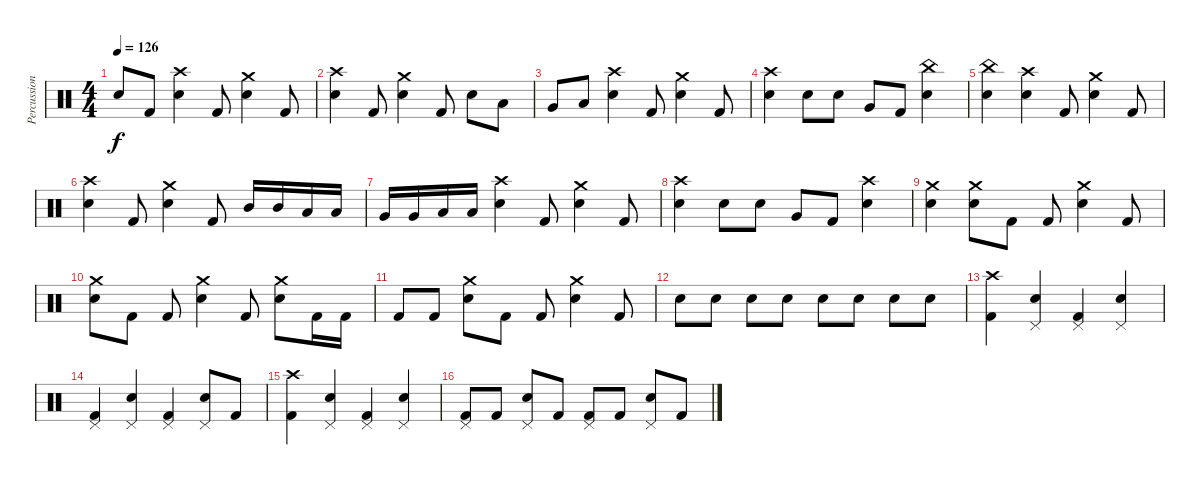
\track ("Percussion" "Percussion") {instrument percussion}
\staff {score}
\articulation defaults
\ts (4 4)
\tempo 126
\clef neutral
\ks c "Snare (hit) 2".8{dy f} "Kick (hit) 2".8
("Crash high (hit)" "Snare (hit) 2").4 "Kick (hit) 2".8 ("Crash medium (hit)" "Snare (hit) 2").4 "Kick (hit) 2".8 |
("Crash high (hit)" "Snare (hit) 2").4 "Kick (hit) 2".8 ("Crash medium (hit)" "Snare (hit) 2").4 "Kick (hit) 2".8 "Snare (hit) 2".8 "Low Tom (hit)".8 |
"Very Low Tom (hit)".8 "Low Floor Tom (hit)".8 ("Crash high (hit)" "Snare (hit) 2").4 "Kick (hit) 2".8 ("Crash medium (hit)" "Snare (hit) 2").4 "Kick (hit) 2".8 |
("Crash high (hit)" "Snare (hit) 2").4 "Snare (hit) 2".8 "Snare (hit) 2".8 "Very Low Tom (hit)".8 "Kick (hit) 2".8 ("China (hit)" "Snare (hit) 2").4 |
("China (hit)" "Snare (hit) 2").4 ("Crash high (hit)" "Snare (hit) 2").4 "Kick (hit) 2".8 ("Crash medium (hit)" "Snare (hit) 2").4 "Kick (hit) 2".8 |
("Crash high (hit)" "Snare (hit) 2").4 "Kick (hit) 2".8 ("Crash medium (hit)" "Snare (hit) 2").4 "Kick (hit) 2".8 "Mid Tom (hit)".16 "Mid Tom (hit)".16 "Low Tom (hit)".16 "Low Tom (hit)".16 |
"Very Low Tom (hit)".16 "Very Low Tom (hit)".16 "Low Floor Tom (hit)".16 "Low Floor Tom (hit)".16 ("Crash high (hit)" "Snare (hit) 2").4 "Kick (hit) 2".8 ("Crash medium (hit)" "Snare (hit) 2").4 "Kick (hit) 2".8 |
("Crash high (hit)" "Snare (hit) 2").4 "Snare (hit) 2".8 "Snare (hit) 2".8 "Very Low Tom (hit)".8 "Kick (hit) 2".8 ("Crash high (hit)" "Snare (hit) 2").4 |
("Crash medium (hit)" "Snare (hit) 2").4 ("Crash medium (hit)" "Snare (hit) 2").8 "Kick (hit) 2".8 "Kick (hit) 2".8 ("Crash medium (hit)" "Snare (hit) 2").4 "Kick (hit) 2".8 |
("Crash medium (hit)" "Snare (hit) 2").8 "Kick (hit) 2".8 "Kick (hit) 2".8 ("Crash medium (hit)" "Snare (hit) 2").4 "Kick (hit) 2".8 ("Crash medium (hit)" "Snare (hit) 2").8 "Kick (hit) 2".16 "Kick (hit) 2".16 |
"Kick (hit) 2".8 "Kick (hit) 2".8 ("Crash medium (hit)" "Snare (hit) 2").8 "Kick (hit) 2".8 "Kick (hit) 2".8 ("Crash medium (hit)" "Snare (hit) 2").4 "Kick (hit) 2".8 |
"Snare (hit) 2".8 "Snare (hit) 2".8 "Snare (hit) 2".8 "Snare (hit) 2".8 "Snare (hit) 2".8 "Snare (hit) 2".8 "Snare (hit) 2".8 "Snare (hit) 2".8 |
("Crash high (hit)" "Kick (hit) 2").4 ("Pedal Hi-Hat (hit)" "Snare (hit) 2").4 ("Pedal Hi-Hat (hit)" "Kick (hit) 2").4 ("Pedal Hi-Hat (hit)" "Snare (hit) 2").4 |
("Pedal Hi-Hat (hit)" "Kick (hit) 2").4 ("Pedal Hi-Hat (hit)" "Snare (hit) 2").4 ("Pedal Hi-Hat (hit)" "Kick (hit) 2").4 ("Pedal Hi-Hat (hit)" "Snare (hit) 2").8 "Kick (hit) 2".8 |
("Crash high (hit)" "Kick (hit) 2").4 ("Pedal Hi-Hat (hit)" "Snare (hit) 2").4 ("Pedal Hi-Hat (hit)" "Kick (hit) 2").4 ("Pedal Hi-Hat (hit)" "Snare (hit) 2").4 |
("Pedal Hi-Hat (hit)" "Kick (hit) 2").8 "Kick (hit) 2".8 ("Pedal Hi-Hat (hit)" "Snare (hit) 2").8 "Kick (hit) 2".8 ("Pedal Hi-Hat (hit)" "Kick (hit) 2").8 "Kick (hit) 2".8 ("Pedal Hi-Hat (hit)" "Snare (hit) 2").8 "Kick (hit) 2".8
